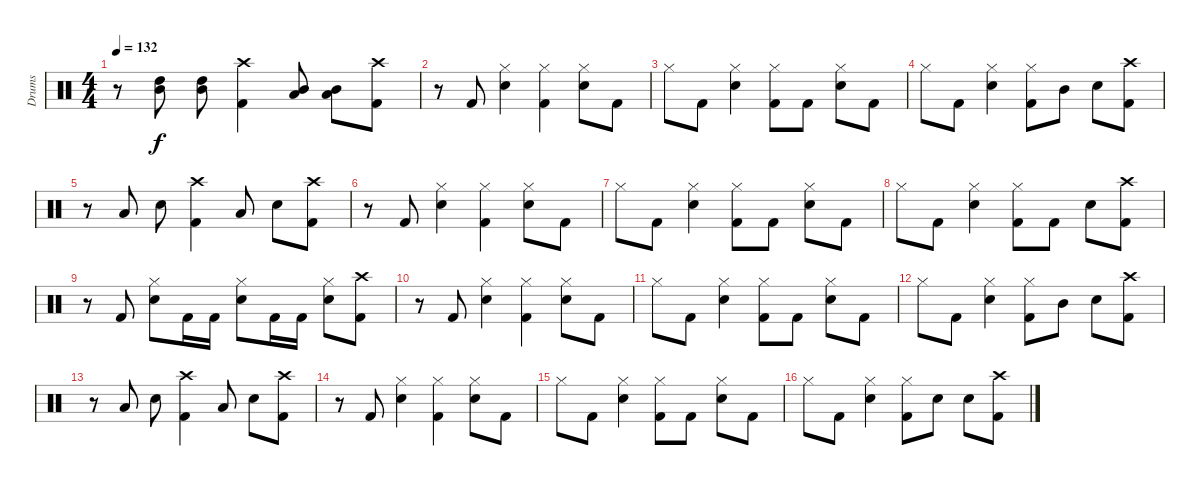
\track ("Drums" "Drums") {instrument percussion}
\staff {score}
\articulation defaults
\ts (4 4)
\tempo 132
\clef neutral
\ks c
r.8{dy f} ("Mid Tom (hit)" "High Tom (hit)").8 ("Mid Tom (hit)" "High Tom (hit)").8 ("Crash high (hit)" "Kick (hit) 2").4 ("Mid Tom (hit)" "Low Tom (hit)").8 ("Mid Tom (hit)" "Low Tom (hit)").8 ("Crash high (hit)" "Kick (hit) 2").8 |
r.8 "Kick (hit) 2".8 ("Hi-Hat (closed)" "Electric Snare (hit)").4 ("Hi-Hat (closed)" "Kick (hit) 2").4 ("Hi-Hat (closed)" "Electric Snare (hit)").8 "Kick (hit) 2".8 |
"Hi-Hat (closed)".8 "Kick (hit) 2".8 ("Hi-Hat (closed)" "Electric Snare (hit)").4 ("Hi-Hat (closed)" "Kick (hit) 2").8 "Kick (hit) 2".8 ("Hi-Hat (closed)" "Electric Snare (hit)").8 "Kick (hit) 2".8 |
"Hi-Hat (closed)".8 "Kick (hit) 2".8 ("Hi-Hat (closed)" "Electric Snare (hit)").4 ("Hi-Hat (closed)" "Kick (hit) 2").8 "Mid Tom (hit)".8 "Electric Snare (hit)".8 ("Crash high (hit)" "Kick (hit) 2").8 |
r.8 "Low Tom (hit)".8 "Electric Snare (hit)".8 ("Crash high (hit)" "Kick (hit) 2").4 "Low Tom (hit)".8 "Electric Snare (hit)".8 ("Crash high (hit)" "Kick (hit) 2").8 |
r.8 "Kick (hit) 2".8 ("Hi-Hat (closed)" "Electric Snare (hit)").4 ("Hi-Hat (closed)" "Kick (hit) 2").4 ("Hi-Hat (closed)" "Electric Snare (hit)").8 "Kick (hit) 2".8 |
"Hi-Hat (closed)".8 "Kick (hit) 2".8 ("Hi-Hat (closed)" "Electric Snare (hit)").4 ("Hi-Hat (closed)" "Kick (hit) 2").8 "Kick (hit) 2".8 ("Hi-Hat (closed)" "Electric Snare (hit)").8 "Kick (hit) 2".8 |
"Hi-Hat (closed)".8 "Kick (hit) 2".8 ("Hi-Hat (closed)" "Electric Snare (hit)").4 ("Hi-Hat (closed)" "Kick (hit) 2").8 "Kick (hit) 2".8 "Electric Snare (hit)".8 ("Crash high (hit)" "Kick (hit) 2").8 |
r.8 "Kick (hit) 2".8 ("Hi-Hat (closed)" "Electric Snare (hit)").8 "Kick (hit) 2".16 "Kick (hit) 2".16 ("Hi-Hat (closed)" "Electric Snare (hit)").8 "Kick (hit) 2".16 "Kick (hit) 2".16 ("Hi-Hat (closed)" "Electric Snare (hit)").8 ("Crash high (hit)" "Kick (hit) 2").8 |
r.8 "Kick (hit) 2".8 ("Hi-Hat (closed)" "Electric Snare (hit)").4 ("Hi-Hat (closed)" "Kick (hit) 2").4 ("Hi-Hat (closed)" "Electric Snare (hit)").8 "Kick (hit) 2".8 |
"Hi-Hat (closed)".8 "Kick (hit) 2".8 ("Hi-Hat (closed)" "Electric Snare (hit)").4 ("Hi-Hat (closed)" "Kick (hit) 2").8 "Kick (hit) 2".8 ("Hi-Hat (closed)" "Electric Snare (hit)").8 "Kick (hit) 2".8 |
"Hi-Hat (closed)".8 "Kick (hit) 2".8 ("Hi-Hat (closed)" "Electric Snare (hit)").4 ("Hi-Hat (closed)" "Kick (hit) 2").8 "Mid Tom (hit)".8 "Electric Snare (hit)".8 ("Crash high (hit)" "Kick (hit) 2").8 |
r.8 "Low Tom (hit)".8 "Electric Snare (hit)".8 ("Crash high (hit)" "Kick (hit) 2").4 "Low Tom (hit)".8 "Electric Snare (hit)".8 ("Crash high (hit)" "Kick (hit) 2").8 |
r.8 "Kick (hit) 2".8 ("Hi-Hat (closed)" "Electric Snare (hit)").4 ("Hi-Hat (closed)" "Kick (hit) 2").4 ("Hi-Hat (closed)" "Electric Snare (hit)").8 "Kick (hit) 2".8 |
"Hi-Hat (closed)".8 "Kick (hit) 2".8 ("Hi-Hat (closed)" "Electric Snare (hit)").4 ("Hi-Hat (closed)" "Kick (hit) 2").8 "Kick (hit) 2".8 ("Hi-Hat (closed)" "Electric Snare (hit)").8 "Kick (hit) 2".8 |
"Hi-Hat (closed)".8 "Kick (hit) 2".8 ("Hi-Hat (closed)" "Electric Snare (hit)").4 ("Hi-Hat (closed)" "Kick (hit) 2").8 "Electric Snare (hit)".8 "Electric Snare (hit)".8 ("Crash high (hit)" "Kick (hit) 2").8
